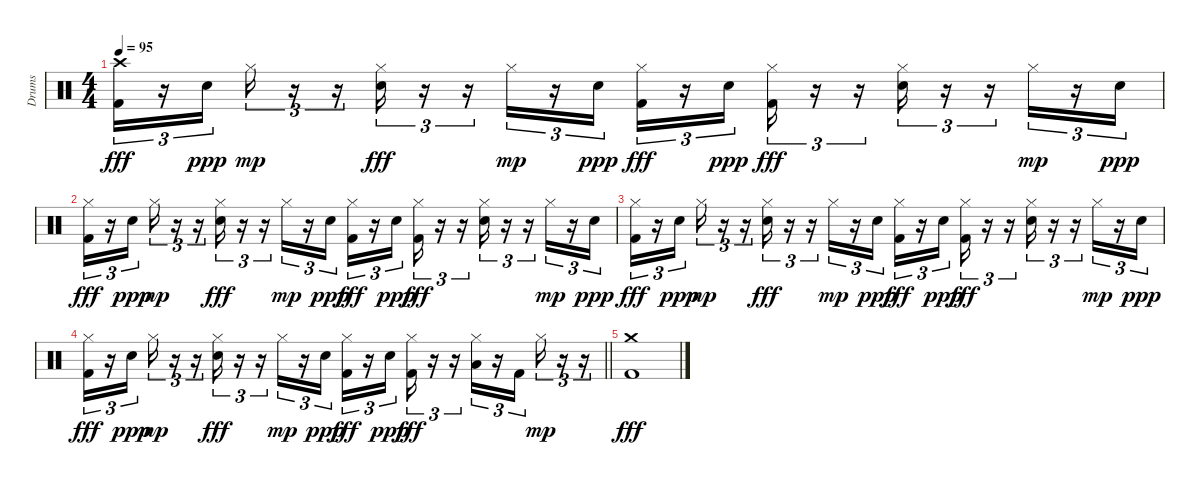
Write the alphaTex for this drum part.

\track ("Drums" "Drums") {instrument percussion}
\staff {score}
\articulation defaults
\ts (4 4)
\tempo 95
\clef neutral
\ks c
("Crash high (hit)" "Kick (hit) 2").16{tu (3 2) dy fff} r.16{tu (3 2)} "Electric Snare (hit)".16{tu (3 2) dy ppp} "Hi-Hat (closed)".16{tu (3 2) dy mp} r.16{tu (3 2)} r.16{tu (3 2)} ("Hi-Hat (closed)" "Electric Snare (hit)").16{tu (3 2) dy fff} r.16{tu (3 2)} r.16{tu (3 2)} "Hi-Hat (closed)".16{tu (3 2) dy mp} r.16{tu (3 2)} "Electric Snare (hit)".16{tu (3 2) dy ppp} ("Hi-Hat (closed)" "Kick (hit) 2").16{tu (3 2) dy fff} r.16{tu (3 2)} "Electric Snare (hit)".16{tu (3 2) dy ppp} ("Hi-Hat (closed)" "Kick (hit) 2").16{tu (3 2) dy fff} r.16{tu (3 2)} r.16{tu (3 2)} ("Hi-Hat (closed)" "Electric Snare (hit)").16{tu (3 2)} r.16{tu (3 2)} r.16{tu (3 2)} "Hi-Hat (closed)".16{tu (3 2) dy mp} r.16{tu (3 2)} "Electric Snare (hit)".16{tu (3 2) dy ppp} |
("Hi-Hat (closed)" "Kick (hit) 2").16{tu (3 2) dy fff} r.16{tu (3 2)} "Electric Snare (hit)".16{tu (3 2) dy ppp} "Hi-Hat (closed)".16{tu (3 2) dy mp} r.16{tu (3 2)} r.16{tu (3 2)} ("Hi-Hat (closed)" "Electric Snare (hit)").16{tu (3 2) dy fff} r.16{tu (3 2)} r.16{tu (3 2)} "Hi-Hat (closed)".16{tu (3 2) dy mp} r.16{tu (3 2)} "Electric Snare (hit)".16{tu (3 2) dy ppp} ("Hi-Hat (closed)" "Kick (hit) 2").16{tu (3 2) dy fff} r.16{tu (3 2)} "Electric Snare (hit)".16{tu (3 2) dy ppp} ("Hi-Hat (closed)" "Kick (hit) 2").16{tu (3 2) dy fff} r.16{tu (3 2)} r.16{tu (3 2)} ("Hi-Hat (closed)" "Electric Snare (hit)").16{tu (3 2)} r.16{tu (3 2)} r.16{tu (3 2)} "Hi-Hat (closed)".16{tu (3 2) dy mp} r.16{tu (3 2)} "Electric Snare (hit)".16{tu (3 2) dy ppp} |
("Hi-Hat (closed)" "Kick (hit) 2").16{tu (3 2) dy fff} r.16{tu (3 2)} "Electric Snare (hit)".16{tu (3 2) dy ppp} "Hi-Hat (closed)".16{tu (3 2) dy mp} r.16{tu (3 2)} r.16{tu (3 2)} ("Hi-Hat (closed)" "Electric Snare (hit)").16{tu (3 2) dy fff} r.16{tu (3 2)} r.16{tu (3 2)} "Hi-Hat (closed)".16{tu (3 2) dy mp} r.16{tu (3 2)} "Electric Snare (hit)".16{tu (3 2) dy ppp} ("Hi-Hat (closed)" "Kick (hit) 2").16{tu (3 2) dy fff} r.16{tu (3 2)} "Electric Snare (hit)".16{tu (3 2) dy ppp} ("Hi-Hat (closed)" "Kick (hit) 2").16{tu (3 2) dy fff} r.16{tu (3 2)} r.16{tu (3 2)} ("Hi-Hat (closed)" "Electric Snare (hit)").16{tu (3 2)} r.16{tu (3 2)} r.16{tu (3 2)} "Hi-Hat (closed)".16{tu (3 2) dy mp} r.16{tu (3 2)} "Electric Snare (hit)".16{tu (3 2) dy ppp} |
\barLineRight lightlight
("Hi-Hat (closed)" "Kick (hit) 2").16{tu (3 2) dy fff} r.16{tu (3 2)} "Electric Snare (hit)".16{tu (3 2) dy ppp} "Hi-Hat (closed)".16{tu (3 2) dy mp} r.16{tu (3 2)} r.16{tu (3 2)} ("Hi-Hat (closed)" "Electric Snare (hit)").16{tu (3 2) dy fff} r.16{tu (3 2)} r.16{tu (3 2)} "Hi-Hat (closed)".16{tu (3 2) dy mp} r.16{tu (3 2)} "Electric Snare (hit)".16{tu (3 2) dy ppp} ("Hi-Hat (closed)" "Kick (hit) 2").16{tu (3 2) dy fff} r.16{tu (3 2)} "Electric Snare (hit)".16{tu (3 2) dy ppp} ("Hi-Hat (closed)" "Kick (hit) 2").16{tu (3 2) dy fff} r.16{tu (3 2)} r.16{tu (3 2)} ("Hi-Hat (closed)" "Low Floor Tom (hit)").16{tu (3 2)} r.16{tu (3 2)} "Kick (hit) 2".16{tu (3 2)} "Hi-Hat (closed)".16{tu (3 2) dy mp} r.16{tu (3 2)} r.16{tu (3 2)} |
("Crash medium (hit)" "Kick (hit) 2").1{dy fff}
